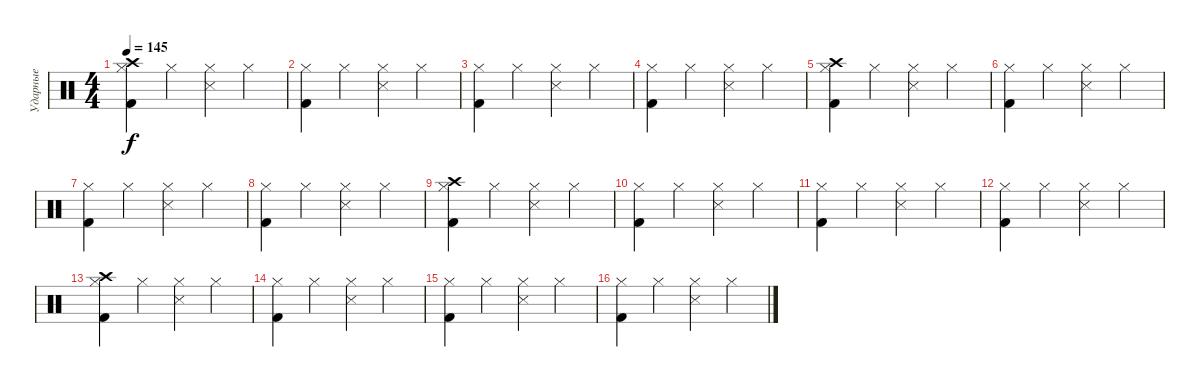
\track ("Ударные" "Ударные") {instrument percussion}
\staff {score}
\articulation defaults
\ts (4 4)
\tempo 145
\clef neutral
\ks c
("Kick (hit) 2" "Hi-Hat (closed)" "Crash high (hit)").4{dy f} "Hi-Hat (closed)".4 ("Snare (side stick) 3" "Hi-Hat (closed)").4 "Hi-Hat (closed)".4 |
("Kick (hit) 2" "Hi-Hat (closed)").4 "Hi-Hat (closed)".4 ("Snare (side stick) 3" "Hi-Hat (closed)").4 "Hi-Hat (closed)".4 |
("Hi-Hat (closed)" "Kick (hit) 2").4 "Hi-Hat (closed)".4 ("Hi-Hat (closed)" "Snare (side stick) 3").4 "Hi-Hat (closed)".4 |
("Hi-Hat (closed)" "Kick (hit) 2").4 "Hi-Hat (closed)".4 ("Snare (side stick) 3" "Hi-Hat (closed)").4 "Hi-Hat (closed)".4 |
("Crash high (hit)" "Hi-Hat (closed)" "Kick (hit) 2").4 "Hi-Hat (closed)".4 ("Hi-Hat (closed)" "Snare (side stick) 3").4 "Hi-Hat (closed)".4 |
("Kick (hit) 2" "Hi-Hat (closed)").4 "Hi-Hat (closed)".4 ("Snare (side stick) 3" "Hi-Hat (closed)").4 "Hi-Hat (closed)".4 |
("Kick (hit) 2" "Hi-Hat (closed)").4 "Hi-Hat (closed)".4 ("Hi-Hat (closed)" "Snare (side stick) 3").4 "Hi-Hat (closed)".4 |
("Kick (hit) 2" "Hi-Hat (closed)").4 "Hi-Hat (closed)".4 ("Snare (side stick) 3" "Hi-Hat (closed)").4 "Hi-Hat (closed)".4 |
("Kick (hit) 2" "Hi-Hat (closed)" "Crash high (hit)").4 "Hi-Hat (closed)".4 ("Snare (side stick) 3" "Hi-Hat (closed)").4 "Hi-Hat (closed)".4 |
("Kick (hit) 2" "Hi-Hat (closed)").4 "Hi-Hat (closed)".4 ("Hi-Hat (closed)" "Snare (side stick) 3").4 "Hi-Hat (closed)".4 |
("Hi-Hat (closed)" "Kick (hit) 2").4 "Hi-Hat (closed)".4 ("Hi-Hat (closed)" "Snare (side stick) 3").4 "Hi-Hat (closed)".4 |
("Hi-Hat (closed)" "Kick (hit) 2").4 "Hi-Hat (closed)".4 ("Hi-Hat (closed)" "Snare (side stick) 3").4 "Hi-Hat (closed)".4 |
("Hi-Hat (closed)" "Crash high (hit)" "Kick (hit) 2").4 "Hi-Hat (closed)".4 ("Hi-Hat (closed)" "Snare (side stick) 3").4 "Hi-Hat (closed)".4 |
("Hi-Hat (closed)" "Kick (hit) 2").4 "Hi-Hat (closed)".4 ("Hi-Hat (closed)" "Snare (side stick) 3").4 "Hi-Hat (closed)".4 |
("Kick (hit) 2" "Hi-Hat (closed)").4 "Hi-Hat (closed)".4 ("Hi-Hat (closed)" "Snare (side stick) 3").4 "Hi-Hat (closed)".4 |
("Hi-Hat (closed)" "Kick (hit) 2").4 "Hi-Hat (closed)".4 ("Hi-Hat (closed)" "Snare (side stick) 3").4 "Hi-Hat (closed)".4
